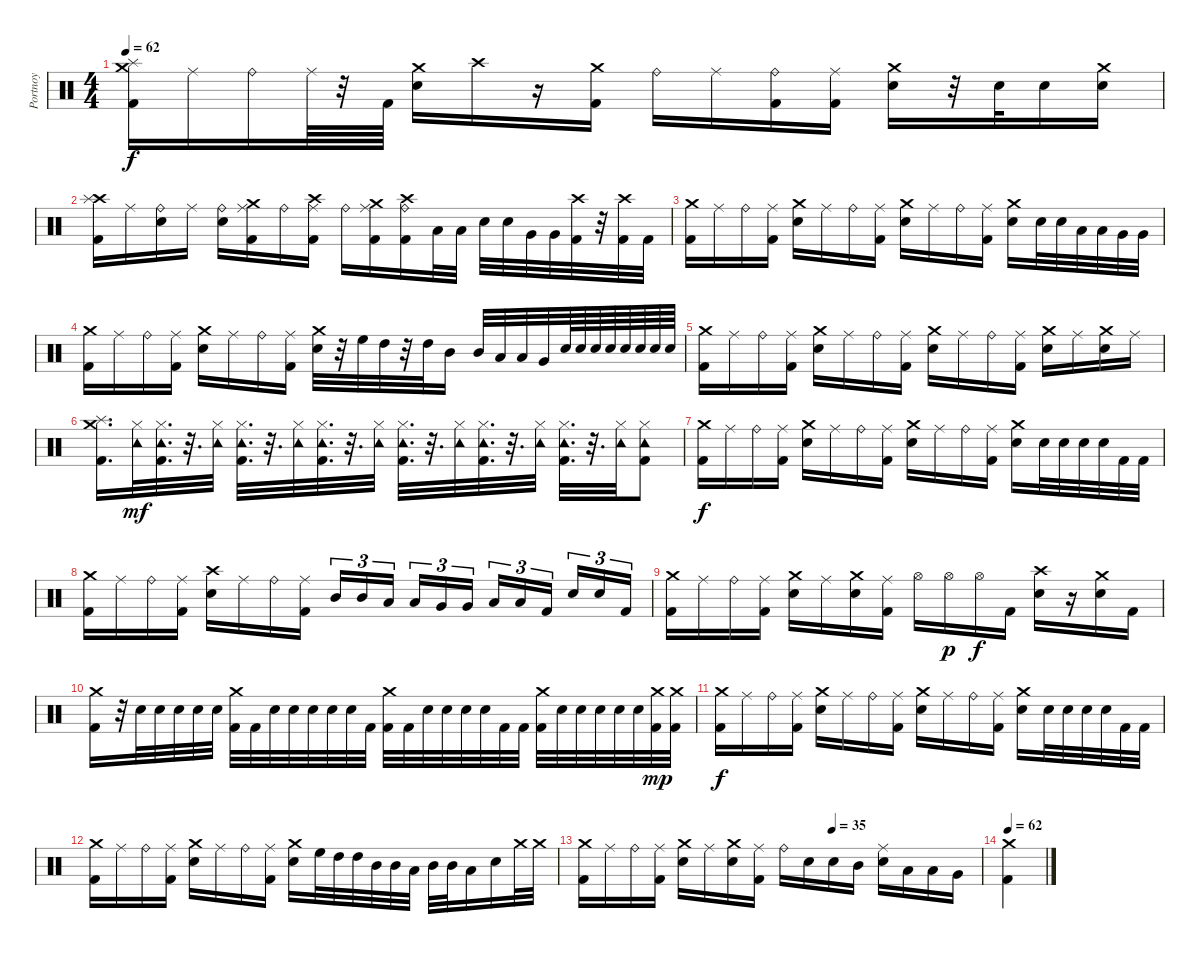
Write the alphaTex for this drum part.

\track ("Portnoy" "Portnoy") {instrument percussion}
\staff {score}
\articulation defaults
\ts (4 4)
\tempo 62
\clef neutral
\ks c
("Crash medium (hit)" "Splash (hit)" "Kick (hit) 2").16{dy f} "Ride (middle)".16 "Ride (bell)".16 "Ride (middle)".64 r.32 "Kick (hit) 2".64 ("Crash medium (hit)" "Electric Snare (hit)").16 "Crash high (hit)".16 r.16 ("Crash medium (hit)" "Kick (hit) 2").16 "Ride (bell)".16 "Ride (middle)".16 ("Ride (bell)" "Kick (hit) 2").16 ("Ride (middle)" "Kick (hit) 2").16 ("Crash medium (hit)" "Electric Snare (hit)").16 r.32 "Electric Snare (hit)".32 "Electric Snare (hit)".16 ("Crash medium (hit)" "Snare (hit) 2").16 |
("Crash high (hit)" "Splash (hit)" "Kick (hit) 2").16 "Ride (middle)".16 ("Ride (bell)" "Electric Snare (hit)").16 "Ride (middle)".16 ("Ride (bell)" "Electric Snare (hit)").16 ("Ride (middle)" "Crash medium (hit)" "Kick (hit) 2").16 "Ride (bell)".16 ("Ride (middle)" "Crash high (hit)" "Kick (hit) 2").16 "Ride (bell)".16 ("Ride (middle)" "Crash medium (hit)" "Kick (hit) 2").16 ("Ride (bell)" "Crash high (hit)" "Kick (hit) 2").16 "Low Tom (hit)".32 "Low Tom (hit)".32 "Electric Snare (hit)".32 "Electric Snare (hit)".32 "Very Low Tom (hit)".32 "Very Low Tom (hit)".32 ("Crash high (hit)" "Kick (hit) 2").32 r.32 ("Crash high (hit)" "Kick (hit) 2").32 "Kick (hit) 2".32 |
("Crash medium (hit)" "Kick (hit) 2").16 "Ride (middle)".16 "Ride (bell)".16 ("Ride (middle)" "Kick (hit) 2").16 ("Crash medium (hit)" "Electric Snare (hit)").16 "Ride (middle)".16 "Ride (bell)".16 ("Ride (middle)" "Kick (hit) 2").16 ("Crash medium (hit)" "Electric Snare (hit)").16 "Ride (middle)".16 "Ride (bell)".16 ("Ride (middle)" "Kick (hit) 2").16 ("Crash medium (hit)" "Electric Snare (hit)").16 "Electric Snare (hit)".32 "Electric Snare (hit)".32 "Low Tom (hit)".32 "Low Tom (hit)".32 "Very Low Tom (hit)".32 "Very Low Tom (hit)".32 |
("Crash medium (hit)" "Kick (hit) 2").16 "Ride (middle)".16 "Ride (bell)".16 ("Ride (middle)" "Kick (hit) 2").16 ("Crash medium (hit)" "Electric Snare (hit)").16 "Ride (middle)".16 "Ride (bell)".16 ("Ride (middle)" "Kick (hit) 2").16 ("Crash medium (hit)" "Electric Snare (hit)").32 r.32 "High Floor Tom (hit)".32 "High Tom (hit)".32 r.32 "High Tom (hit)".32 "Mid Tom (hit)".16 "Mid Tom (hit)".32 "Low Tom (hit)".32 "Low Tom (hit)".32 "Very Low Tom (hit)".32 "Electric Snare (hit)".64 "Electric Snare (hit)".64 "Electric Snare (hit)".64 "Electric Snare (hit)".64 "Electric Snare (hit)".64 "Electric Snare (hit)".64 "Electric Snare (hit)".64 "Electric Snare (hit)".64 |
("Crash medium (hit)" "Kick (hit) 2").16 "Ride (middle)".16 "Ride (bell)".16 ("Ride (middle)" "Kick (hit) 2").16 ("Crash medium (hit)" "Electric Snare (hit)").16 "Ride (middle)".16 "Ride (bell)".16 ("Ride (middle)" "Kick (hit) 2").16 ("Crash medium (hit)" "Electric Snare (hit)").16 "Ride (middle)".16 "Ride (bell)".16 ("Ride (middle)" "Kick (hit) 2").16 ("Crash medium (hit)" "Electric Snare (hit)").16 "Ride (middle)".16 ("Crash medium (hit)" "Electric Snare (hit)").16 "Ride (middle)".16 |
("Crash medium (hit)" "Splash (hit)" "Kick (hit) 2").16{d} ("Hi-Hat (closed)" "Tambourine (hit)").32{dy mf} ("Hi-Hat (closed)" "Kick (hit) 2" "Tambourine (hit)").32{d} r.32{d} ("Hi-Hat (closed)" "Tambourine (hit)").32 ("Hi-Hat (closed)" "Kick (hit) 2" "Tambourine (hit)").32{d} r.32{d} ("Hi-Hat (closed)" "Tambourine (hit)").32 ("Hi-Hat (closed)" "Kick (hit) 2" "Tambourine (hit)").32{d} r.32{d} ("Hi-Hat (closed)" "Tambourine (hit)").32 ("Hi-Hat (closed)" "Kick (hit) 2" "Tambourine (hit)").32{d} r.32{d} ("Hi-Hat (closed)" "Tambourine (hit)").32 ("Hi-Hat (closed)" "Kick (hit) 2" "Tambourine (hit)").32{d} r.32{d} ("Hi-Hat (closed)" "Tambourine (hit)").32 ("Hi-Hat (closed)" "Kick (hit) 2" "Tambourine (hit)").32{d} r.32{d} ("Hi-Hat (closed)" "Tambourine (hit)").32 ("Hi-Hat (closed)" "Kick (hit) 2" "Tambourine (hit)").8 |
("Crash medium (hit)" "Kick (hit) 2").16{dy f} "Ride (middle)".16 "Ride (bell)".16 ("Ride (middle)" "Kick (hit) 2").16 ("Crash medium (hit)" "Electric Snare (hit)").16 "Ride (middle)".16 "Ride (bell)".16 ("Ride (middle)" "Kick (hit) 2").16 ("Crash medium (hit)" "Electric Snare (hit)").16 "Ride (middle)".16 "Ride (bell)".16 ("Ride (middle)" "Kick (hit) 2").16 ("Crash medium (hit)" "Electric Snare (hit)").16 "Electric Snare (hit)".32 "Electric Snare (hit)".32 "Electric Snare (hit)".32 "Electric Snare (hit)".32 "Kick (hit) 2".32 "Kick (hit) 2".32 |
("Crash medium (hit)" "Kick (hit) 2").16 "Ride (middle)".16 "Ride (bell)".16 ("Ride (middle)" "Kick (hit) 2").16 ("Crash high (hit)" "Electric Snare (hit)").16 "Ride (middle)".16 "Ride (bell)".16 ("Ride (middle)" "Kick (hit) 2").16 "Mid Tom (hit)".16{tu (3 2)} "Mid Tom (hit)".16{tu (3 2)} "Low Tom (hit)".16{tu (3 2) beam splitsecondary} "Low Tom (hit)".16{tu (3 2)} "Very Low Tom (hit)".16{tu (3 2)} "Very Low Tom (hit)".16{tu (3 2)} "Low Floor Tom (hit)".16{tu (3 2)} "Low Floor Tom (hit)".16{tu (3 2)} "Kick (hit) 2".16{tu (3 2) beam splitsecondary} "Electric Snare (hit)".16{tu (3 2)} "Electric Snare (hit)".16{tu (3 2)} "Kick (hit) 2".16{tu (3 2)} |
("Crash medium (hit)" "Kick (hit) 2").16 "Ride (middle)".16 "Ride (bell)".16 ("Ride (middle)" "Kick (hit) 2").16 ("Crash medium (hit)" "Electric Snare (hit)").16 "Ride (middle)".16 ("Crash medium (hit)" "Electric Snare (hit)").16 ("Ride (middle)" "Kick (hit) 2").16 "Hi-Hat (open)".16 "Hi-Hat (open)".16{dy p} "Hi-Hat (open)".16{dy f} "Kick (hit) 2".16 ("Crash high (hit)" "Electric Snare (hit)").16 r.16 ("Crash medium (hit)" "Electric Snare (hit)").16 "Kick (hit) 2".16 |
("Crash medium (hit)" "Kick (hit) 2").16 r.32 "Electric Snare (hit)".32 "Electric Snare (hit)".32 "Electric Snare (hit)".32 "Electric Snare (hit)".32 "Electric Snare (hit)".32 ("Crash medium (hit)" "Kick (hit) 2").32 "Kick (hit) 2".32 "Electric Snare (hit)".32 "Electric Snare (hit)".32 "Electric Snare (hit)".32 "Electric Snare (hit)".32 "Electric Snare (hit)".32 "Kick (hit) 2".32 ("Crash medium (hit)" "Kick (hit) 2").32 "Kick (hit) 2".32 "Electric Snare (hit)".32 "Electric Snare (hit)".32 "Electric Snare (hit)".32 "Electric Snare (hit)".32 "Kick (hit) 2".32 "Kick (hit) 2".32 ("Crash medium (hit)" "Kick (hit) 2").32 "Electric Snare (hit)".32 "Electric Snare (hit)".32 "Electric Snare (hit)".32 "Electric Snare (hit)".32 "Electric Snare (hit)".32 ("Crash medium (hit)" "Kick (hit) 2").32{dy mp} ("Crash medium (hit)" "Kick (hit) 2").32 |
("Crash medium (hit)" "Kick (hit) 2").16{dy f} "Ride (middle)".16 "Ride (bell)".16 ("Ride (middle)" "Kick (hit) 2").16 ("Crash medium (hit)" "Electric Snare (hit)").16 "Ride (middle)".16 "Ride (bell)".16 ("Ride (middle)" "Kick (hit) 2").16 ("Crash medium (hit)" "Electric Snare (hit)").16 "Ride (middle)".16 "Ride (bell)".16 ("Ride (middle)" "Kick (hit) 2").16 ("Crash medium (hit)" "Electric Snare (hit)").16 "Electric Snare (hit)".32 "Electric Snare (hit)".32 "Electric Snare (hit)".32 "Electric Snare (hit)".32 "Kick (hit) 2".32 "Kick (hit) 2".32 |
("Crash medium (hit)" "Kick (hit) 2").16 "Ride (middle)".16 "Ride (bell)".16 ("Ride (middle)" "Kick (hit) 2").16 ("Crash medium (hit)" "Electric Snare (hit)").16 "Ride (middle)".16 "Ride (bell)".16 ("Ride (middle)" "Kick (hit) 2").16 ("Crash medium (hit)" "Electric Snare (hit)").16 "High Floor Tom (hit)".32 "High Tom (hit)".32 "High Tom (hit)".32 "Mid Tom (hit)".32 "Mid Tom (hit)".32 "Low Tom (hit)".32 "Mid Tom (hit)".32 "Mid Tom (hit)".32 "Low Tom (hit)".16 "Electric Snare (hit)".16 "Crash medium (hit)".32 "Crash medium (hit)".32 |
\tempo (35 0.625)
("Crash medium (hit)" "Kick (hit) 2").16 "Ride (middle)".16 "Ride (bell)".16 ("Ride (middle)" "Kick (hit) 2").16 ("Crash medium (hit)" "Electric Snare (hit)").16 "Ride (middle)".16 ("Crash medium (hit)" "Electric Snare (hit)").16 ("Ride (middle)" "Kick (hit) 2").16 "Ride (bell)".16 "Electric Snare (hit)".16 "Electric Snare (hit)".16 "Mid Tom (hit)".16 ("Ride (middle)" "Electric Snare (hit)").16 "Low Tom (hit)".16 "Low Tom (hit)".16 "Very Low Tom (hit)".16 |
\tempo 62
("Crash medium (hit)" "Kick (hit) 2").4
